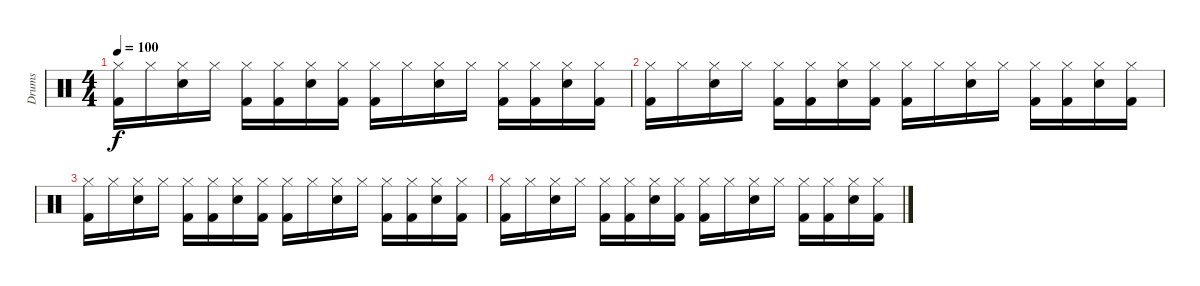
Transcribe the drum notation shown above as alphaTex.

\track ("Drums" "Drums") {instrument percussion}
\staff {score}
\articulation defaults
\ts (4 4)
\tempo 100
\clef neutral
\ks c
("Hi-Hat (closed)" "Kick (hit) 2").16{dy f volume 5} "Hi-Hat (closed)".16 ("Hi-Hat (closed)" "Snare (hit) 2").16 "Hi-Hat (closed)".16 ("Hi-Hat (closed)" "Kick (hit) 2").16 ("Hi-Hat (closed)" "Kick (hit) 2").16 ("Hi-Hat (closed)" "Snare (hit) 2").16 ("Hi-Hat (closed)" "Kick (hit) 2").16 ("Hi-Hat (closed)" "Kick (hit) 2").16 "Hi-Hat (closed)".16 ("Hi-Hat (closed)" "Snare (hit) 2").16 "Hi-Hat (closed)".16 ("Hi-Hat (closed)" "Kick (hit) 2").16 ("Hi-Hat (closed)" "Kick (hit) 2").16 ("Hi-Hat (closed)" "Snare (hit) 2").16 ("Hi-Hat (closed)" "Kick (hit) 2").16 |
("Hi-Hat (closed)" "Kick (hit) 2").16{volume 4} "Hi-Hat (closed)".16 ("Hi-Hat (closed)" "Snare (hit) 2").16 "Hi-Hat (closed)".16 ("Hi-Hat (closed)" "Kick (hit) 2").16 ("Hi-Hat (closed)" "Kick (hit) 2").16 ("Hi-Hat (closed)" "Snare (hit) 2").16 ("Hi-Hat (closed)" "Kick (hit) 2").16 ("Hi-Hat (closed)" "Kick (hit) 2").16 "Hi-Hat (closed)".16 ("Hi-Hat (closed)" "Snare (hit) 2").16 "Hi-Hat (closed)".16 ("Hi-Hat (closed)" "Kick (hit) 2").16 ("Hi-Hat (closed)" "Kick (hit) 2").16 ("Hi-Hat (closed)" "Snare (hit) 2").16 ("Hi-Hat (closed)" "Kick (hit) 2").16 |
("Hi-Hat (closed)" "Kick (hit) 2").16{volume 3} "Hi-Hat (closed)".16 ("Hi-Hat (closed)" "Snare (hit) 2").16 "Hi-Hat (closed)".16 ("Hi-Hat (closed)" "Kick (hit) 2").16 ("Hi-Hat (closed)" "Kick (hit) 2").16 ("Hi-Hat (closed)" "Snare (hit) 2").16 ("Hi-Hat (closed)" "Kick (hit) 2").16 ("Hi-Hat (closed)" "Kick (hit) 2").16 "Hi-Hat (closed)".16 ("Hi-Hat (closed)" "Snare (hit) 2").16 "Hi-Hat (closed)".16 ("Hi-Hat (closed)" "Kick (hit) 2").16 ("Hi-Hat (closed)" "Kick (hit) 2").16 ("Hi-Hat (closed)" "Snare (hit) 2").16 ("Hi-Hat (closed)" "Kick (hit) 2").16 |
("Hi-Hat (closed)" "Kick (hit) 2").16{volume 2} "Hi-Hat (closed)".16 ("Hi-Hat (closed)" "Snare (hit) 2").16 "Hi-Hat (closed)".16 ("Hi-Hat (closed)" "Kick (hit) 2").16 ("Hi-Hat (closed)" "Kick (hit) 2").16 ("Hi-Hat (closed)" "Snare (hit) 2").16 ("Hi-Hat (closed)" "Kick (hit) 2").16 ("Hi-Hat (closed)" "Kick (hit) 2").16 "Hi-Hat (closed)".16 ("Hi-Hat (closed)" "Snare (hit) 2").16 "Hi-Hat (closed)".16 ("Hi-Hat (closed)" "Kick (hit) 2").16 ("Hi-Hat (closed)" "Kick (hit) 2").16 ("Hi-Hat (closed)" "Snare (hit) 2").16 ("Hi-Hat (closed)" "Kick (hit) 2").16
